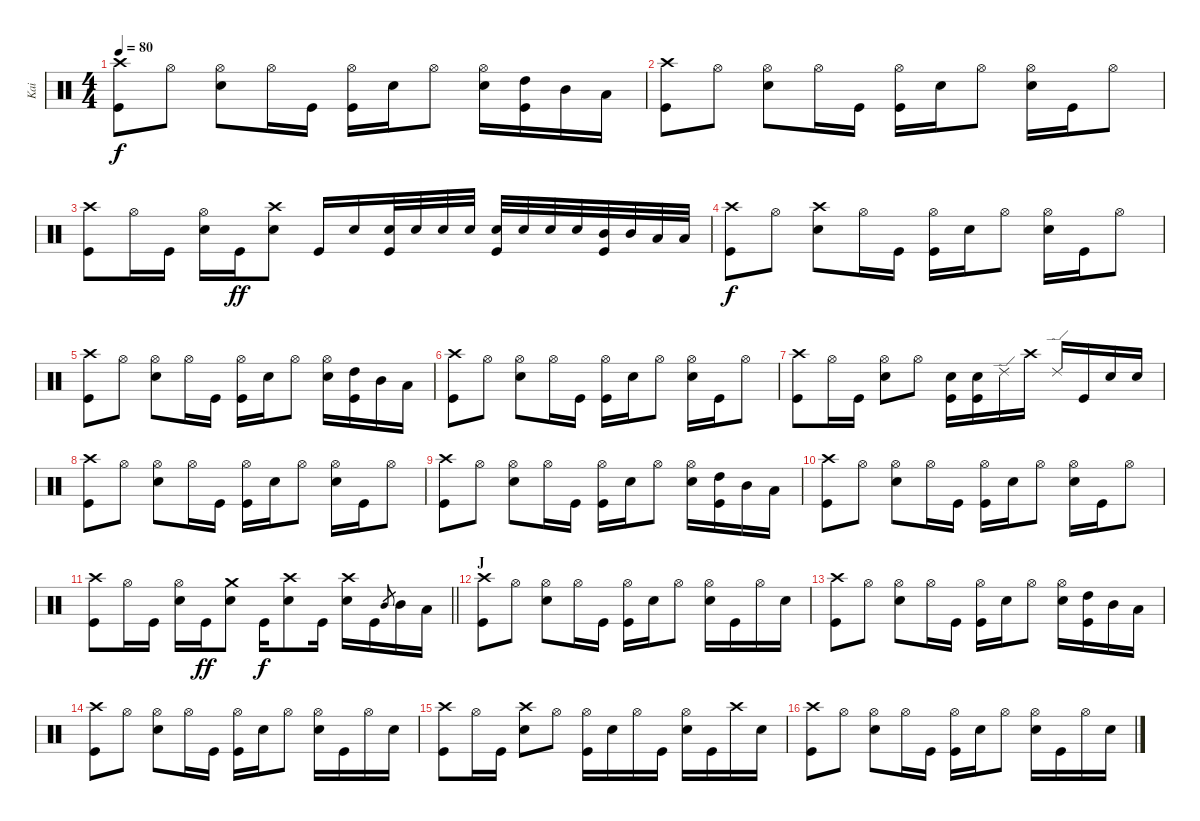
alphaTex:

\track ("Kai" "Kai") {instrument percussion}
\staff {score}
\articulation defaults
\ts (4 4)
\tempo 80
\clef neutral
\ks c
("Kick (hit)" "Crash high (hit)").8{dy f} "Hi-Hat (open)".8 ("Snare (hit) 2" "Hi-Hat (open)").8 "Hi-Hat (open)".16 "Kick (hit)".16 ("Kick (hit)" "Hi-Hat (open)").16 "Snare (hit) 2".16 "Hi-Hat (open)".8 ("Snare (hit) 2" "Hi-Hat (open)").16 ("High Tom (hit)" "Kick (hit)").16 "Mid Tom (hit)".16 "Low Tom (hit)".16 |
("Kick (hit)" "Crash high (hit)").8 "Hi-Hat (open)".8 ("Snare (hit) 2" "Hi-Hat (open)").8 "Hi-Hat (open)".16 "Kick (hit)".16 ("Kick (hit)" "Hi-Hat (open)").16 "Snare (hit) 2".16 "Hi-Hat (open)".8 ("Snare (hit) 2" "Hi-Hat (open)").16 "Kick (hit)".16 "Hi-Hat (open)".8 |
("Kick (hit)" "Crash high (hit)").8 "Hi-Hat (open)".16 "Kick (hit)".16 ("Snare (hit) 2" "Hi-Hat (open)").16 "Kick (hit)".16{dy ff} ("Snare (hit) 2" "Crash high (hit)").8 "Kick (hit)".16 "Snare (hit) 2".16 ("Kick (hit)" "Snare (hit) 2").32 "Snare (hit) 2".32 "Snare (hit) 2".32 "Snare (hit) 2".32 ("Snare (hit) 2" "Kick (hit)").32 "Snare (hit) 2".32 "Snare (hit) 2".32 "Snare (hit) 2".32 ("Mid Tom (hit)" "Kick (hit)").32 "Mid Tom (hit)".32 "Low Tom (hit)".32 "Low Tom (hit)".32 |
("Kick (hit)" "Crash high (hit)").8{dy f} "Hi-Hat (open)".8 ("Snare (hit) 2" "Crash high (hit)").8 "Hi-Hat (open)".16 "Kick (hit)".16 ("Kick (hit)" "Hi-Hat (open)").16 "Snare (hit) 2".16 "Hi-Hat (open)".8 ("Snare (hit) 2" "Hi-Hat (open)").16 "Kick (hit)".16 "Hi-Hat (open)".8 |
("Kick (hit)" "Crash high (hit)").8 "Hi-Hat (open)".8 ("Snare (hit) 2" "Hi-Hat (open)").8 "Hi-Hat (open)".16 "Kick (hit)".16 ("Kick (hit)" "Hi-Hat (open)").16 "Snare (hit) 2".16 "Hi-Hat (open)".8 ("Snare (hit) 2" "Hi-Hat (open)").16 ("High Tom (hit)" "Kick (hit)").16 "Mid Tom (hit)".16 "Low Tom (hit)".16 |
("Kick (hit)" "Crash high (hit)").8 "Hi-Hat (open)".8 ("Snare (hit) 2" "Hi-Hat (open)").8 "Hi-Hat (open)".16 "Kick (hit)".16 ("Kick (hit)" "Hi-Hat (open)").16 "Snare (hit) 2".16 "Hi-Hat (open)".8 ("Snare (hit) 2" "Hi-Hat (open)").16 "Kick (hit)".16 "Hi-Hat (open)".8 |
("Kick (hit)" "Crash high (hit)").8 "Hi-Hat (open)".16 "Kick (hit)".16 ("Snare (hit) 2" "Hi-Hat (open)").8 "Hi-Hat (open)".8 ("Snare (hit) 2" "Kick (hit)").16 ("Snare (hit) 2" "Kick (hit)").16 "Ride (edge) 2".16 "Crash high (hit)".16 "Ride (edge) 2".16 "Kick (hit)".16 "Snare (hit) 2".16 "Snare (hit) 2".16 |
("Kick (hit)" "Crash high (hit)").8 "Hi-Hat (open)".8 ("Snare (hit) 2" "Hi-Hat (open)").8 "Hi-Hat (open)".16 "Kick (hit)".16 ("Kick (hit)" "Hi-Hat (open)").16 "Snare (hit) 2".16 "Hi-Hat (open)".8 ("Snare (hit) 2" "Hi-Hat (open)").16 "Kick (hit)".16 "Hi-Hat (open)".8 |
("Kick (hit)" "Crash high (hit)").8 "Hi-Hat (open)".8 ("Snare (hit) 2" "Hi-Hat (open)").8 "Hi-Hat (open)".16 "Kick (hit)".16 ("Kick (hit)" "Hi-Hat (open)").16 "Snare (hit) 2".16 "Hi-Hat (open)".8 ("Snare (hit) 2" "Hi-Hat (open)").16 ("High Tom (hit)" "Kick (hit)").16 "Mid Tom (hit)".16 "Low Tom (hit)".16 |
("Kick (hit)" "Crash high (hit)").8 "Hi-Hat (open)".8 ("Snare (hit) 2" "Hi-Hat (open)").8 "Hi-Hat (open)".16 "Kick (hit)".16 ("Kick (hit)" "Hi-Hat (open)").16 "Snare (hit) 2".16 "Hi-Hat (open)".8 ("Snare (hit) 2" "Hi-Hat (open)").16 "Kick (hit)".16 "Hi-Hat (open)".8 |
\barLineRight lightlight
("Kick (hit)" "Crash high (hit)").8 "Hi-Hat (open)".16 "Kick (hit)".16 ("Snare (hit) 2" "Hi-Hat (open)").16 "Kick (hit)".16{dy ff} ("Snare (hit) 2" "Crash medium (hit)").8 "Kick (hit)".16{dy f} ("Snare (hit) 2" "Crash high (hit)").8 "Kick (hit)".16 ("Snare (hit) 2" "Crash high (hit)").16 "Kick (hit)".16 "Mid Tom (hit)".8{gr} "Mid Tom (hit)".16 "Low Tom (hit)".16 |
\section ("" "J")
("Kick (hit)" "Crash high (hit)").8 "Hi-Hat (open)".8 ("Snare (hit) 2" "Hi-Hat (open)").8 "Hi-Hat (open)".16 "Kick (hit)".16 ("Kick (hit)" "Hi-Hat (open)").16 "Snare (hit) 2".16 "Hi-Hat (open)".8 ("Snare (hit) 2" "Hi-Hat (open)").16 "Kick (hit)".16 "Hi-Hat (open)".16 "Snare (hit) 2".16 |
("Kick (hit)" "Crash high (hit)").8 "Hi-Hat (open)".8 ("Snare (hit) 2" "Hi-Hat (open)").8 "Hi-Hat (open)".16 "Kick (hit)".16 ("Kick (hit)" "Hi-Hat (open)").16 "Snare (hit) 2".16 "Hi-Hat (open)".8 ("Snare (hit) 2" "Hi-Hat (open)").16 ("High Tom (hit)" "Kick (hit)").16 "Mid Tom (hit)".16 "Low Tom (hit)".16 |
("Kick (hit)" "Crash high (hit)").8 "Hi-Hat (open)".8 ("Snare (hit) 2" "Hi-Hat (open)").8 "Hi-Hat (open)".16 "Kick (hit)".16 ("Kick (hit)" "Hi-Hat (open)").16 "Snare (hit) 2".16 "Hi-Hat (open)".8 ("Snare (hit) 2" "Hi-Hat (open)").16 "Kick (hit)".16 "Hi-Hat (open)".16 "Snare (hit) 2".16 |
("Kick (hit)" "Crash high (hit)").8 "Hi-Hat (open)".16 "Kick (hit)".16 ("Snare (hit) 2" "Crash high (hit)").8 "Hi-Hat (open)".8 ("Kick (hit)" "Hi-Hat (open)").16 "Snare (hit) 2".16 "Hi-Hat (open)".16 "Kick (hit)".16 ("Snare (hit) 2" "Hi-Hat (open)").16 "Kick (hit)".16 "Crash high (hit)".16 "Snare (hit) 2".16 |
("Kick (hit)" "Crash high (hit)").8 "Hi-Hat (open)".8 ("Snare (hit) 2" "Hi-Hat (open)").8 "Hi-Hat (open)".16 "Kick (hit)".16 ("Kick (hit)" "Hi-Hat (open)").16 "Snare (hit) 2".16 "Hi-Hat (open)".8 ("Snare (hit) 2" "Hi-Hat (open)").16 "Kick (hit)".16 "Hi-Hat (open)".16 "Snare (hit) 2".16
